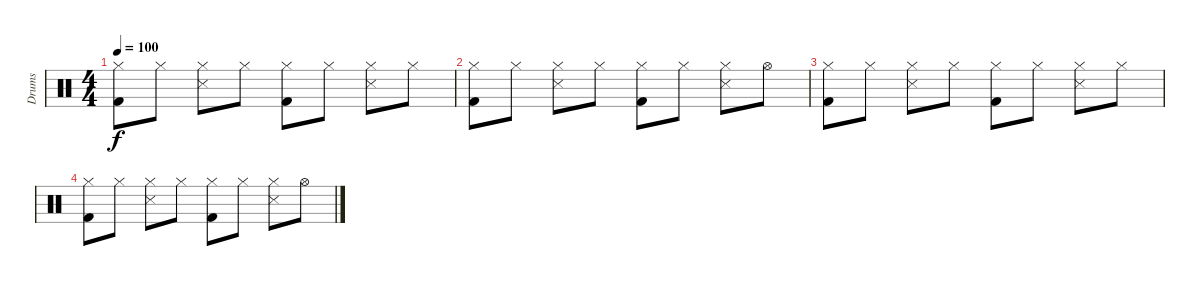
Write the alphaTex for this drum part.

\track ("Drums" "Drums") {instrument percussion}
\staff {score}
\articulation defaults
\ts (4 4)
\tempo 100
\clef neutral
\ks c
("Kick (hit) 2" "Hi-Hat (closed)").8{dy f} "Hi-Hat (closed)".8 ("Snare (side stick) 3" "Hi-Hat (closed)").8 "Hi-Hat (closed)".8 ("Kick (hit) 2" "Hi-Hat (closed)").8 "Hi-Hat (closed)".8 ("Snare (side stick) 3" "Hi-Hat (closed)").8 "Hi-Hat (closed)".8 |
("Kick (hit) 2" "Hi-Hat (closed)").8 "Hi-Hat (closed)".8 ("Snare (side stick) 3" "Hi-Hat (closed)").8 "Hi-Hat (closed)".8 ("Kick (hit) 2" "Hi-Hat (closed)").8 "Hi-Hat (closed)".8 ("Snare (side stick) 3" "Hi-Hat (closed)").8 "Hi-Hat (open)".8 |
("Kick (hit) 2" "Hi-Hat (closed)").8 "Hi-Hat (closed)".8 ("Snare (side stick) 3" "Hi-Hat (closed)").8 "Hi-Hat (closed)".8 ("Kick (hit) 2" "Hi-Hat (closed)").8 "Hi-Hat (closed)".8 ("Snare (side stick) 3" "Hi-Hat (closed)").8 "Hi-Hat (closed)".8 |
("Kick (hit) 2" "Hi-Hat (closed)").8 "Hi-Hat (closed)".8 ("Snare (side stick) 3" "Hi-Hat (closed)").8 "Hi-Hat (closed)".8 ("Kick (hit) 2" "Hi-Hat (closed)").8 "Hi-Hat (closed)".8 ("Snare (side stick) 3" "Hi-Hat (closed)").8 "Hi-Hat (open)".8
